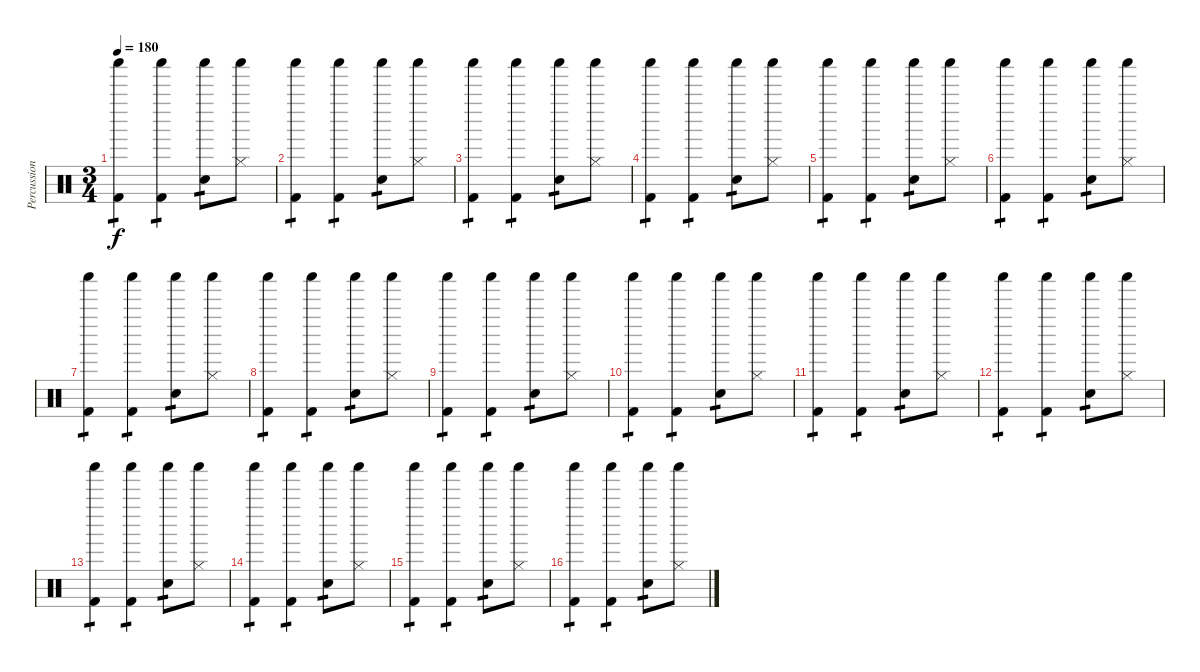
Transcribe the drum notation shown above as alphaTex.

\track ("Percussions" "Percussion") {instrument percussion}
\staff {score}
\articulation defaults
\ts (3 4)
\tempo 180
\clef neutral
\ks c
("Kick (hit) 2" "Shaker (hit)").4{tp 1 dy f} ("Kick (hit) 2" "Shaker (hit)").4{tp 1} ("Shaker (hit)" "Snare (hit) 2").8{tp 1} ("Shaker (hit)" "Hi-Hat (closed)").8 |
("Kick (hit) 2" "Shaker (hit)").4{tp 1} ("Kick (hit) 2" "Shaker (hit)").4{tp 1} ("Shaker (hit)" "Snare (hit) 2").8{tp 1} ("Shaker (hit)" "Hi-Hat (closed)").8 |
("Kick (hit) 2" "Shaker (hit)").4{tp 1} ("Kick (hit) 2" "Shaker (hit)").4{tp 1} ("Shaker (hit)" "Snare (hit) 2").8{tp 1} ("Shaker (hit)" "Hi-Hat (closed)").8 |
("Kick (hit) 2" "Shaker (hit)").4{tp 1} ("Kick (hit) 2" "Shaker (hit)").4{tp 1} ("Shaker (hit)" "Snare (hit) 2").8{tp 1} ("Shaker (hit)" "Hi-Hat (closed)").8 |
("Kick (hit) 2" "Shaker (hit)").4{tp 1} ("Kick (hit) 2" "Shaker (hit)").4{tp 1} ("Shaker (hit)" "Snare (hit) 2").8{tp 1} ("Shaker (hit)" "Hi-Hat (closed)").8 |
("Kick (hit) 2" "Shaker (hit)").4{tp 1} ("Kick (hit) 2" "Shaker (hit)").4{tp 1} ("Shaker (hit)" "Snare (hit) 2").8{tp 1} ("Shaker (hit)" "Hi-Hat (closed)").8 |
("Kick (hit) 2" "Shaker (hit)").4{tp 1} ("Kick (hit) 2" "Shaker (hit)").4{tp 1} ("Shaker (hit)" "Snare (hit) 2").8{tp 1} ("Shaker (hit)" "Hi-Hat (closed)").8 |
("Kick (hit) 2" "Shaker (hit)").4{tp 1} ("Kick (hit) 2" "Shaker (hit)").4{tp 1} ("Shaker (hit)" "Snare (hit) 2").8{tp 1} ("Shaker (hit)" "Hi-Hat (closed)").8 |
("Kick (hit) 2" "Shaker (hit)").4{tp 1} ("Kick (hit) 2" "Shaker (hit)").4{tp 1} ("Shaker (hit)" "Snare (hit) 2").8{tp 1} ("Shaker (hit)" "Hi-Hat (closed)").8 |
("Kick (hit) 2" "Shaker (hit)").4{tp 1} ("Kick (hit) 2" "Shaker (hit)").4{tp 1} ("Shaker (hit)" "Snare (hit) 2").8{tp 1} ("Shaker (hit)" "Hi-Hat (closed)").8 |
("Kick (hit) 2" "Shaker (hit)").4{tp 1} ("Kick (hit) 2" "Shaker (hit)").4{tp 1} ("Shaker (hit)" "Snare (hit) 2").8{tp 1} ("Shaker (hit)" "Hi-Hat (closed)").8 |
("Kick (hit) 2" "Shaker (hit)").4{tp 1} ("Kick (hit) 2" "Shaker (hit)").4{tp 1} ("Shaker (hit)" "Snare (hit) 2").8{tp 1} ("Shaker (hit)" "Hi-Hat (closed)").8 |
("Kick (hit) 2" "Shaker (hit)").4{tp 1} ("Kick (hit) 2" "Shaker (hit)").4{tp 1} ("Shaker (hit)" "Snare (hit) 2").8{tp 1} ("Shaker (hit)" "Hi-Hat (closed)").8 |
("Kick (hit) 2" "Shaker (hit)").4{tp 1} ("Kick (hit) 2" "Shaker (hit)").4{tp 1} ("Shaker (hit)" "Snare (hit) 2").8{tp 1} ("Shaker (hit)" "Hi-Hat (closed)").8 |
("Kick (hit) 2" "Shaker (hit)").4{tp 1} ("Kick (hit) 2" "Shaker (hit)").4{tp 1} ("Shaker (hit)" "Snare (hit) 2").8{tp 1} ("Shaker (hit)" "Hi-Hat (closed)").8 |
("Kick (hit) 2" "Shaker (hit)").4{tp 1} ("Kick (hit) 2" "Shaker (hit)").4{tp 1} ("Shaker (hit)" "Snare (hit) 2").8{tp 1} ("Shaker (hit)" "Hi-Hat (closed)").8
